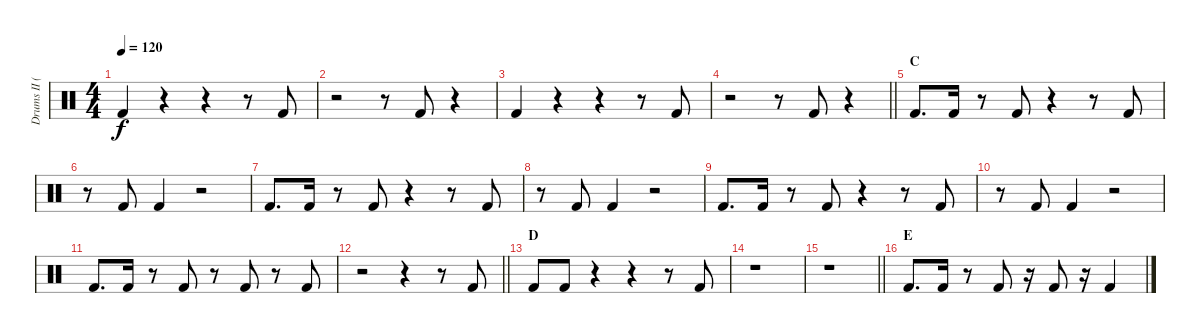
\track ("Drums II (Ruka)" "Drums II (") {instrument percussion}
\staff {score}
\articulation defaults
\ts (4 4)
\tempo 120
\clef neutral
\ks c "Kick (hit) 2".4{dy f}
r.4 r.4 r.8 "Kick (hit) 2".8 |
r.2 r.8 "Kick (hit) 2".8 r.4 |
"Kick (hit) 2".4 r.4 r.4 r.8 "Kick (hit) 2".8 |
\barLineRight lightlight
r.2 r.8 "Kick (hit) 2".8 r.4 |
\section ("" "C")
"Kick (hit) 2".8{d} "Kick (hit) 2".16 r.8 "Kick (hit) 2".8 r.4 r.8 "Kick (hit) 2".8 |
r.8 "Kick (hit) 2".8 "Kick (hit) 2".4 r.2 |
"Kick (hit) 2".8{d} "Kick (hit) 2".16 r.8 "Kick (hit) 2".8 r.4 r.8 "Kick (hit) 2".8 |
r.8 "Kick (hit) 2".8 "Kick (hit) 2".4 r.2 |
"Kick (hit) 2".8{d} "Kick (hit) 2".16 r.8 "Kick (hit) 2".8 r.4 r.8 "Kick (hit) 2".8 |
r.8 "Kick (hit) 2".8 "Kick (hit) 2".4 r.2 |
"Kick (hit) 2".8{d} "Kick (hit) 2".16 r.8 "Kick (hit) 2".8 r.8 "Kick (hit) 2".8 r.8 "Kick (hit) 2".8 |
\barLineRight lightlight
r.2 r.4 r.8 "Kick (hit) 2".8 |
\section ("" "D")
"Kick (hit) 2".8 "Kick (hit) 2".8 r.4 r.4 r.8 "Kick (hit) 2".8 |
r.1 |
\barLineRight lightlight
r.1 |
\section ("" "E")
"Kick (hit) 2".8{d volume 16} "Kick (hit) 2".16 r.8 "Kick (hit) 2".8 r.16 "Kick (hit) 2".8 r.16 "Kick (hit) 2".4
